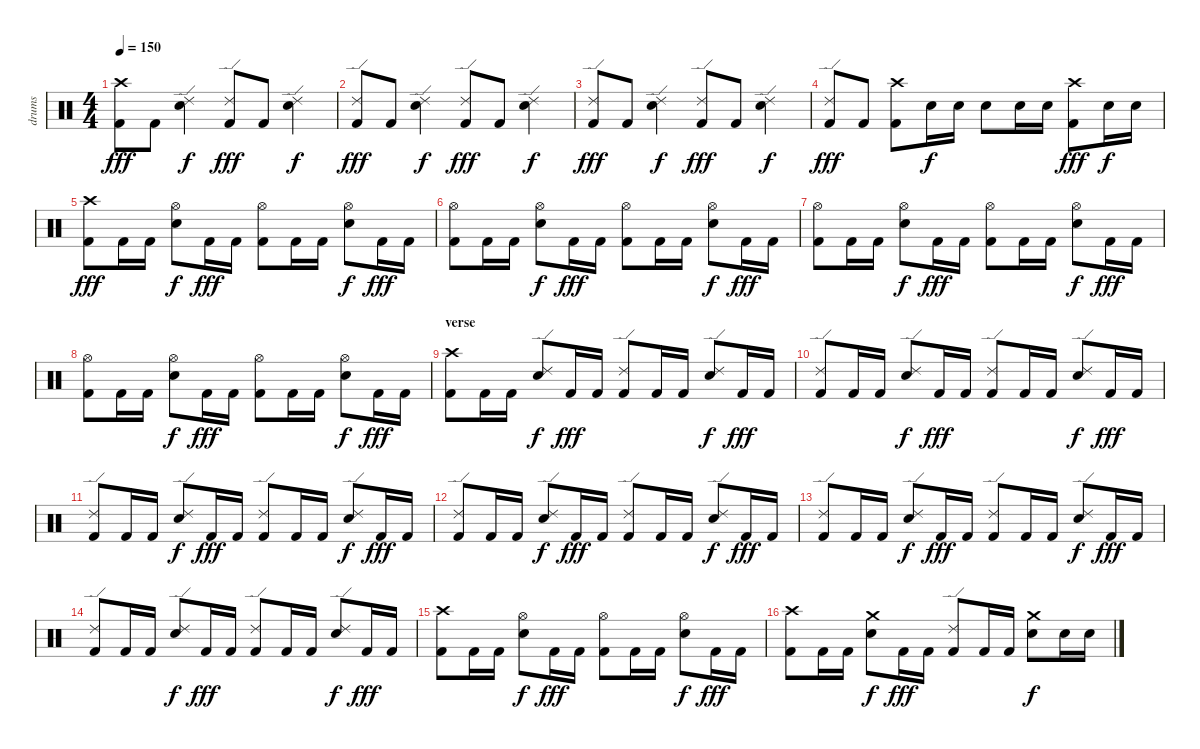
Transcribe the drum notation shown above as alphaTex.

\track ("drums" "drums") {instrument percussion}
\staff {score}
\articulation defaults
\ts (4 4)
\tempo 150
\clef neutral
\ks c
("Crash high (hit)" "Kick (hit) 2").8{dy fff} "Kick (hit) 2".8 ("Ride (edge) 2" "Snare (hit) 2").4{dy f} ("Ride (edge) 2" "Kick (hit) 2").8{dy fff} "Kick (hit) 2".8 ("Ride (edge) 2" "Snare (hit) 2").4{dy f} |
("Ride (edge) 2" "Kick (hit) 2").8{dy fff} "Kick (hit) 2".8 ("Ride (edge) 2" "Snare (hit) 2").4{dy f} ("Ride (edge) 2" "Kick (hit) 2").8{dy fff} "Kick (hit) 2".8 ("Ride (edge) 2" "Snare (hit) 2").4{dy f} |
("Ride (edge) 2" "Kick (hit) 2").8{dy fff} "Kick (hit) 2".8 ("Ride (edge) 2" "Snare (hit) 2").4{dy f} ("Ride (edge) 2" "Kick (hit) 2").8{dy fff} "Kick (hit) 2".8 ("Ride (edge) 2" "Snare (hit) 2").4{dy f} |
("Ride (edge) 2" "Kick (hit) 2").8{dy fff} "Kick (hit) 2".8 ("Crash high (hit)" "Kick (hit) 2").8 "Snare (hit) 2".16{dy f} "Snare (hit) 2".16 "Snare (hit) 2".8 "Snare (hit) 2".16 "Snare (hit) 2".16 ("Crash high (hit)" "Kick (hit) 2").8{dy fff} "Snare (hit) 2".16{dy f} "Snare (hit) 2".16 |
("Crash high (hit)" "Kick (hit) 2").8{dy fff} "Kick (hit) 2".16 "Kick (hit) 2".16 ("Hi-Hat (open)" "Snare (hit) 2").8{dy f} "Kick (hit) 2".16{dy fff} "Kick (hit) 2".16 ("Hi-Hat (open)" "Kick (hit) 2").8 "Kick (hit) 2".16 "Kick (hit) 2".16 ("Hi-Hat (open)" "Snare (hit) 2").8{dy f} "Kick (hit) 2".16{dy fff} "Kick (hit) 2".16 |
("Hi-Hat (open)" "Kick (hit) 2").8 "Kick (hit) 2".16 "Kick (hit) 2".16 ("Hi-Hat (open)" "Snare (hit) 2").8{dy f} "Kick (hit) 2".16{dy fff} "Kick (hit) 2".16 ("Hi-Hat (open)" "Kick (hit) 2").8 "Kick (hit) 2".16 "Kick (hit) 2".16 ("Hi-Hat (open)" "Snare (hit) 2").8{dy f} "Kick (hit) 2".16{dy fff} "Kick (hit) 2".16 |
("Hi-Hat (open)" "Kick (hit) 2").8 "Kick (hit) 2".16 "Kick (hit) 2".16 ("Hi-Hat (open)" "Snare (hit) 2").8{dy f} "Kick (hit) 2".16{dy fff} "Kick (hit) 2".16 ("Hi-Hat (open)" "Kick (hit) 2").8 "Kick (hit) 2".16 "Kick (hit) 2".16 ("Hi-Hat (open)" "Snare (hit) 2").8{dy f} "Kick (hit) 2".16{dy fff} "Kick (hit) 2".16 |
("Hi-Hat (open)" "Kick (hit) 2").8 "Kick (hit) 2".16 "Kick (hit) 2".16 ("Hi-Hat (open)" "Snare (hit) 2").8{dy f} "Kick (hit) 2".16{dy fff} "Kick (hit) 2".16 ("Hi-Hat (open)" "Kick (hit) 2").8 "Kick (hit) 2".16 "Kick (hit) 2".16 ("Hi-Hat (open)" "Snare (hit) 2").8{dy f} "Kick (hit) 2".16{dy fff} "Kick (hit) 2".16 |
\section ("" "verse")
("Crash high (hit)" "Kick (hit) 2").8 "Kick (hit) 2".16 "Kick (hit) 2".16 ("Ride (edge) 2" "Snare (hit) 2").8{dy f} "Kick (hit) 2".16{dy fff} "Kick (hit) 2".16 ("Ride (edge) 2" "Kick (hit) 2").8 "Kick (hit) 2".16 "Kick (hit) 2".16 ("Ride (edge) 2" "Snare (hit) 2").8{dy f} "Kick (hit) 2".16{dy fff} "Kick (hit) 2".16 |
("Ride (edge) 2" "Kick (hit) 2").8 "Kick (hit) 2".16 "Kick (hit) 2".16 ("Ride (edge) 2" "Snare (hit) 2").8{dy f} "Kick (hit) 2".16{dy fff} "Kick (hit) 2".16 ("Ride (edge) 2" "Kick (hit) 2").8 "Kick (hit) 2".16 "Kick (hit) 2".16 ("Ride (edge) 2" "Snare (hit) 2").8{dy f} "Kick (hit) 2".16{dy fff} "Kick (hit) 2".16 |
("Ride (edge) 2" "Kick (hit) 2").8 "Kick (hit) 2".16 "Kick (hit) 2".16 ("Ride (edge) 2" "Snare (hit) 2").8{dy f} "Kick (hit) 2".16{dy fff} "Kick (hit) 2".16 ("Ride (edge) 2" "Kick (hit) 2").8 "Kick (hit) 2".16 "Kick (hit) 2".16 ("Ride (edge) 2" "Snare (hit) 2").8{dy f} "Kick (hit) 2".16{dy fff} "Kick (hit) 2".16 |
("Ride (edge) 2" "Kick (hit) 2").8 "Kick (hit) 2".16 "Kick (hit) 2".16 ("Ride (edge) 2" "Snare (hit) 2").8{dy f} "Kick (hit) 2".16{dy fff} "Kick (hit) 2".16 ("Ride (edge) 2" "Kick (hit) 2").8 "Kick (hit) 2".16 "Kick (hit) 2".16 ("Ride (edge) 2" "Snare (hit) 2").8{dy f} "Kick (hit) 2".16{dy fff} "Kick (hit) 2".16 |
("Ride (edge) 2" "Kick (hit) 2").8 "Kick (hit) 2".16 "Kick (hit) 2".16 ("Ride (edge) 2" "Snare (hit) 2").8{dy f} "Kick (hit) 2".16{dy fff} "Kick (hit) 2".16 ("Ride (edge) 2" "Kick (hit) 2").8 "Kick (hit) 2".16 "Kick (hit) 2".16 ("Ride (edge) 2" "Snare (hit) 2").8{dy f} "Kick (hit) 2".16{dy fff} "Kick (hit) 2".16 |
("Ride (edge) 2" "Kick (hit) 2").8 "Kick (hit) 2".16 "Kick (hit) 2".16 ("Ride (edge) 2" "Snare (hit) 2").8{dy f} "Kick (hit) 2".16{dy fff} "Kick (hit) 2".16 ("Ride (edge) 2" "Kick (hit) 2").8 "Kick (hit) 2".16 "Kick (hit) 2".16 ("Ride (edge) 2" "Snare (hit) 2").8{dy f} "Kick (hit) 2".16{dy fff} "Kick (hit) 2".16 |
("Crash high (hit)" "Kick (hit) 2").8 "Kick (hit) 2".16 "Kick (hit) 2".16 ("Hi-Hat (open)" "Snare (hit) 2").8{dy f} "Kick (hit) 2".16{dy fff} "Kick (hit) 2".16 ("Hi-Hat (open)" "Kick (hit) 2").8 "Kick (hit) 2".16 "Kick (hit) 2".16 ("Hi-Hat (open)" "Snare (hit) 2").8{dy f} "Kick (hit) 2".16{dy fff} "Kick (hit) 2".16 |
("Crash high (hit)" "Kick (hit) 2").8 "Kick (hit) 2".16 "Kick (hit) 2".16 ("Crash medium (hit)" "Snare (hit) 2").8{dy f} "Kick (hit) 2".16{dy fff} "Kick (hit) 2".16 ("Ride (edge) 2" "Kick (hit) 2").8 "Kick (hit) 2".16 "Kick (hit) 2".16 ("Crash medium (hit)" "Snare (hit) 2").8{dy f} "Snare (hit) 2".16 "Snare (hit) 2".16
